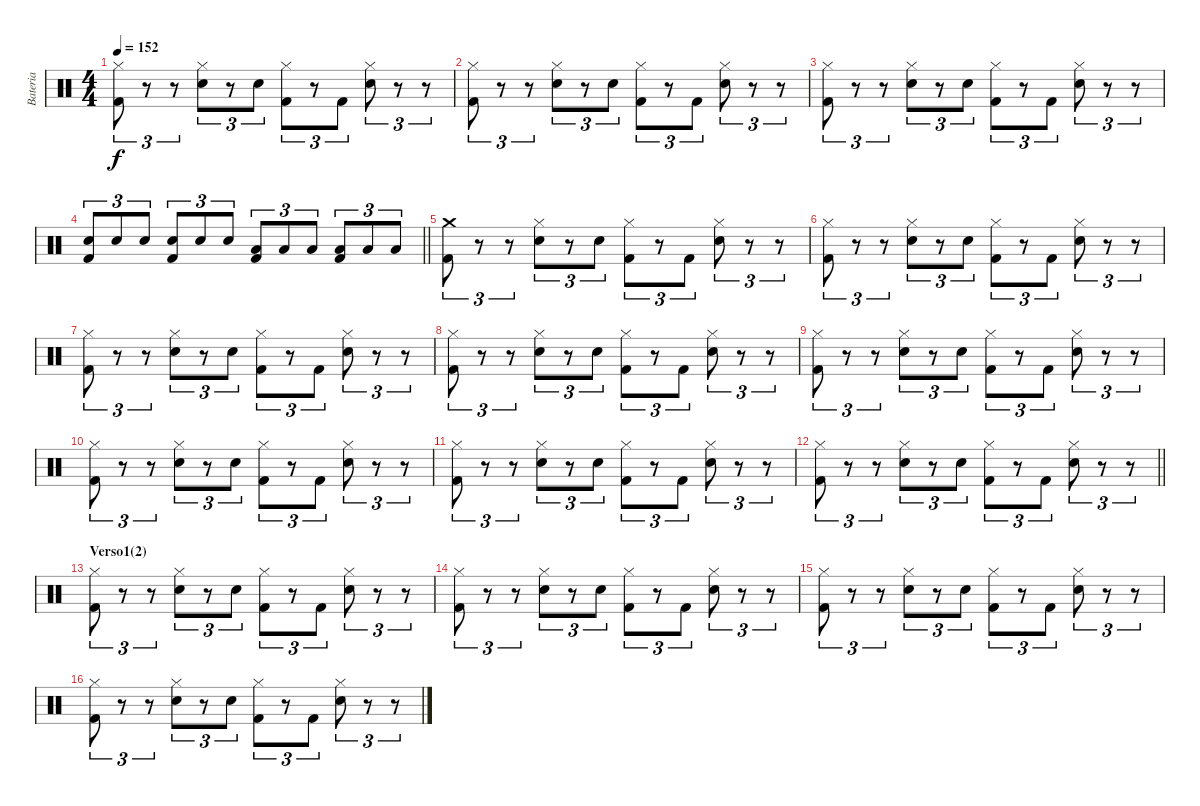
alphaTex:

\track ("Bateria" "Bateria") {instrument percussion}
\staff {score}
\articulation defaults
\ts (4 4)
\tempo 152
\clef neutral
\ks c
("Hi-Hat (closed)" "Kick (hit) 2").8{tu (3 2) dy f} r.8{tu (3 2)} r.8{tu (3 2)} ("Hi-Hat (closed)" "Snare (hit) 2").8{tu (3 2)} r.8{tu (3 2)} "Snare (hit) 2".8{tu (3 2)} ("Hi-Hat (closed)" "Kick (hit) 2").8{tu (3 2)} r.8{tu (3 2)} "Kick (hit) 2".8{tu (3 2)} ("Hi-Hat (closed)" "Snare (hit) 2").8{tu (3 2)} r.8{tu (3 2)} r.8{tu (3 2)} |
("Hi-Hat (closed)" "Kick (hit) 2").8{tu (3 2)} r.8{tu (3 2)} r.8{tu (3 2)} ("Hi-Hat (closed)" "Snare (hit) 2").8{tu (3 2)} r.8{tu (3 2)} "Snare (hit) 2".8{tu (3 2)} ("Hi-Hat (closed)" "Kick (hit) 2").8{tu (3 2)} r.8{tu (3 2)} "Kick (hit) 2".8{tu (3 2)} ("Hi-Hat (closed)" "Snare (hit) 2").8{tu (3 2)} r.8{tu (3 2)} r.8{tu (3 2)} |
("Hi-Hat (closed)" "Kick (hit) 2").8{tu (3 2)} r.8{tu (3 2)} r.8{tu (3 2)} ("Hi-Hat (closed)" "Snare (hit) 2").8{tu (3 2)} r.8{tu (3 2)} "Snare (hit) 2".8{tu (3 2)} ("Hi-Hat (closed)" "Kick (hit) 2").8{tu (3 2)} r.8{tu (3 2)} "Kick (hit) 2".8{tu (3 2)} ("Hi-Hat (closed)" "Snare (hit) 2").8{tu (3 2)} r.8{tu (3 2)} r.8{tu (3 2)} |
\barLineRight lightlight
("Snare (hit) 2" "Kick (hit) 2").8{tu (3 2)} "Snare (hit) 2".8{tu (3 2)} "Snare (hit) 2".8{tu (3 2)} ("Snare (hit) 2" "Kick (hit) 2").8{tu (3 2)} "Snare (hit) 2".8{tu (3 2)} "Snare (hit) 2".8{tu (3 2)} ("Low Floor Tom (hit)" "Kick (hit) 2").8{tu (3 2)} "Low Tom (hit)".8{tu (3 2)} "Low Tom (hit)".8{tu (3 2)} ("Low Floor Tom (hit)" "Kick (hit) 2").8{tu (3 2)} "Low Floor Tom (hit)".8{tu (3 2)} "Low Floor Tom (hit)".8{tu (3 2)} |
("Crash medium (hit)" "Kick (hit) 2").8{tu (3 2)} r.8{tu (3 2)} r.8{tu (3 2)} ("Hi-Hat (closed)" "Snare (hit) 2").8{tu (3 2)} r.8{tu (3 2)} "Snare (hit) 2".8{tu (3 2)} ("Hi-Hat (closed)" "Kick (hit) 2").8{tu (3 2)} r.8{tu (3 2)} "Kick (hit) 2".8{tu (3 2)} ("Hi-Hat (closed)" "Snare (hit) 2").8{tu (3 2)} r.8{tu (3 2)} r.8{tu (3 2)} |
("Hi-Hat (closed)" "Kick (hit) 2").8{tu (3 2)} r.8{tu (3 2)} r.8{tu (3 2)} ("Hi-Hat (closed)" "Snare (hit) 2").8{tu (3 2)} r.8{tu (3 2)} "Snare (hit) 2".8{tu (3 2)} ("Hi-Hat (closed)" "Kick (hit) 2").8{tu (3 2)} r.8{tu (3 2)} "Kick (hit) 2".8{tu (3 2)} ("Hi-Hat (closed)" "Snare (hit) 2").8{tu (3 2)} r.8{tu (3 2)} r.8{tu (3 2)} |
("Hi-Hat (closed)" "Kick (hit) 2").8{tu (3 2)} r.8{tu (3 2)} r.8{tu (3 2)} ("Hi-Hat (closed)" "Snare (hit) 2").8{tu (3 2)} r.8{tu (3 2)} "Snare (hit) 2".8{tu (3 2)} ("Hi-Hat (closed)" "Kick (hit) 2").8{tu (3 2)} r.8{tu (3 2)} "Kick (hit) 2".8{tu (3 2)} ("Hi-Hat (closed)" "Snare (hit) 2").8{tu (3 2)} r.8{tu (3 2)} r.8{tu (3 2)} |
("Hi-Hat (closed)" "Kick (hit) 2").8{tu (3 2)} r.8{tu (3 2)} r.8{tu (3 2)} ("Hi-Hat (closed)" "Snare (hit) 2").8{tu (3 2)} r.8{tu (3 2)} "Snare (hit) 2".8{tu (3 2)} ("Hi-Hat (closed)" "Kick (hit) 2").8{tu (3 2)} r.8{tu (3 2)} "Kick (hit) 2".8{tu (3 2)} ("Hi-Hat (closed)" "Snare (hit) 2").8{tu (3 2)} r.8{tu (3 2)} r.8{tu (3 2)} |
("Hi-Hat (closed)" "Kick (hit) 2").8{tu (3 2)} r.8{tu (3 2)} r.8{tu (3 2)} ("Hi-Hat (closed)" "Snare (hit) 2").8{tu (3 2)} r.8{tu (3 2)} "Snare (hit) 2".8{tu (3 2)} ("Hi-Hat (closed)" "Kick (hit) 2").8{tu (3 2)} r.8{tu (3 2)} "Kick (hit) 2".8{tu (3 2)} ("Hi-Hat (closed)" "Snare (hit) 2").8{tu (3 2)} r.8{tu (3 2)} r.8{tu (3 2)} |
("Hi-Hat (closed)" "Kick (hit) 2").8{tu (3 2)} r.8{tu (3 2)} r.8{tu (3 2)} ("Hi-Hat (closed)" "Snare (hit) 2").8{tu (3 2)} r.8{tu (3 2)} "Snare (hit) 2".8{tu (3 2)} ("Hi-Hat (closed)" "Kick (hit) 2").8{tu (3 2)} r.8{tu (3 2)} "Kick (hit) 2".8{tu (3 2)} ("Hi-Hat (closed)" "Snare (hit) 2").8{tu (3 2)} r.8{tu (3 2)} r.8{tu (3 2)} |
("Hi-Hat (closed)" "Kick (hit) 2").8{tu (3 2)} r.8{tu (3 2)} r.8{tu (3 2)} ("Hi-Hat (closed)" "Snare (hit) 2").8{tu (3 2)} r.8{tu (3 2)} "Snare (hit) 2".8{tu (3 2)} ("Hi-Hat (closed)" "Kick (hit) 2").8{tu (3 2)} r.8{tu (3 2)} "Kick (hit) 2".8{tu (3 2)} ("Hi-Hat (closed)" "Snare (hit) 2").8{tu (3 2)} r.8{tu (3 2)} r.8{tu (3 2)} |
\barLineRight lightlight
("Hi-Hat (closed)" "Kick (hit) 2").8{tu (3 2)} r.8{tu (3 2)} r.8{tu (3 2)} ("Hi-Hat (closed)" "Snare (hit) 2").8{tu (3 2)} r.8{tu (3 2)} "Snare (hit) 2".8{tu (3 2)} ("Hi-Hat (closed)" "Kick (hit) 2").8{tu (3 2)} r.8{tu (3 2)} "Kick (hit) 2".8{tu (3 2)} ("Hi-Hat (closed)" "Snare (hit) 2").8{tu (3 2)} r.8{tu (3 2)} r.8{tu (3 2)} |
\section ("" "Verso1(2)")
("Hi-Hat (closed)" "Kick (hit) 2").8{tu (3 2)} r.8{tu (3 2)} r.8{tu (3 2)} ("Hi-Hat (closed)" "Snare (hit) 2").8{tu (3 2)} r.8{tu (3 2)} "Snare (hit) 2".8{tu (3 2)} ("Hi-Hat (closed)" "Kick (hit) 2").8{tu (3 2)} r.8{tu (3 2)} "Kick (hit) 2".8{tu (3 2)} ("Hi-Hat (closed)" "Snare (hit) 2").8{tu (3 2)} r.8{tu (3 2)} r.8{tu (3 2)} |
("Hi-Hat (closed)" "Kick (hit) 2").8{tu (3 2)} r.8{tu (3 2)} r.8{tu (3 2)} ("Hi-Hat (closed)" "Snare (hit) 2").8{tu (3 2)} r.8{tu (3 2)} "Snare (hit) 2".8{tu (3 2)} ("Hi-Hat (closed)" "Kick (hit) 2").8{tu (3 2)} r.8{tu (3 2)} "Kick (hit) 2".8{tu (3 2)} ("Hi-Hat (closed)" "Snare (hit) 2").8{tu (3 2)} r.8{tu (3 2)} r.8{tu (3 2)} |
("Hi-Hat (closed)" "Kick (hit) 2").8{tu (3 2)} r.8{tu (3 2)} r.8{tu (3 2)} ("Hi-Hat (closed)" "Snare (hit) 2").8{tu (3 2)} r.8{tu (3 2)} "Snare (hit) 2".8{tu (3 2)} ("Hi-Hat (closed)" "Kick (hit) 2").8{tu (3 2)} r.8{tu (3 2)} "Kick (hit) 2".8{tu (3 2)} ("Hi-Hat (closed)" "Snare (hit) 2").8{tu (3 2)} r.8{tu (3 2)} r.8{tu (3 2)} |
("Hi-Hat (closed)" "Kick (hit) 2").8{tu (3 2)} r.8{tu (3 2)} r.8{tu (3 2)} ("Hi-Hat (closed)" "Snare (hit) 2").8{tu (3 2)} r.8{tu (3 2)} "Snare (hit) 2".8{tu (3 2)} ("Hi-Hat (closed)" "Kick (hit) 2").8{tu (3 2)} r.8{tu (3 2)} "Kick (hit) 2".8{tu (3 2)} ("Hi-Hat (closed)" "Snare (hit) 2").8{tu (3 2)} r.8{tu (3 2)} r.8{tu (3 2)}
